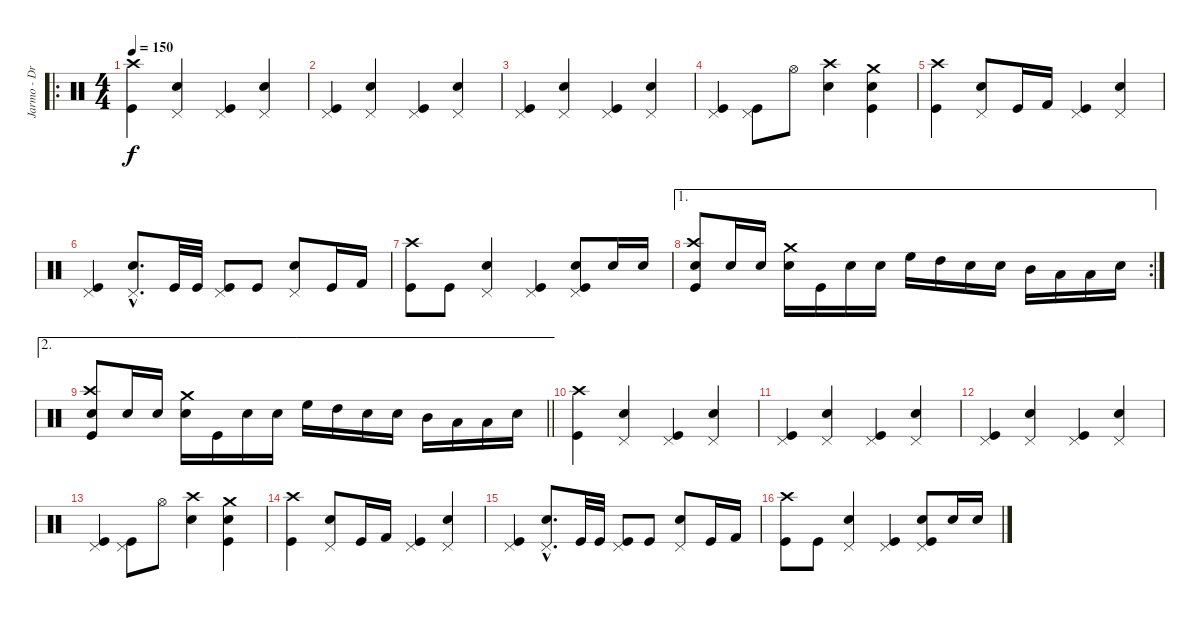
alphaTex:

\track ("Jarmo - Drums/Vodka" "Jarmo - Dr") {instrument percussion}
\staff {score}
\articulation defaults
\ro
\ts (4 4)
\tempo 150
\clef neutral
\ks c
("Kick (hit)" "Crash high (hit)").4{dy f} ("Electric Snare (hit)" "Pedal Hi-Hat (hit)").4 ("Kick (hit)" "Pedal Hi-Hat (hit)").4 ("Electric Snare (hit)" "Pedal Hi-Hat (hit)").4 |
("Kick (hit)" "Pedal Hi-Hat (hit)").4 ("Electric Snare (hit)" "Pedal Hi-Hat (hit)").4 ("Kick (hit)" "Pedal Hi-Hat (hit)").4 ("Electric Snare (hit)" "Pedal Hi-Hat (hit)").4 |
("Kick (hit)" "Pedal Hi-Hat (hit)").4 ("Electric Snare (hit)" "Pedal Hi-Hat (hit)").4 ("Kick (hit)" "Pedal Hi-Hat (hit)").4 ("Electric Snare (hit)" "Pedal Hi-Hat (hit)").4 |
("Kick (hit)" "Pedal Hi-Hat (hit)").4 ("Kick (hit)" "Pedal Hi-Hat (hit)").8 "Hi-Hat (open)".8 ("Electric Snare (hit)" "Crash high (hit)").4 ("Kick (hit)" "Electric Snare (hit)" "Crash medium (hit)").4 |
("Kick (hit)" "Crash high (hit)").4 ("Electric Snare (hit)" "Pedal Hi-Hat (hit)").8 "Kick (hit)".16 "Kick (hit) 2".16 ("Kick (hit)" "Pedal Hi-Hat (hit)").4 ("Electric Snare (hit)" "Pedal Hi-Hat (hit)").4 |
("Kick (hit)" "Pedal Hi-Hat (hit)").4 ("Electric Snare (hit)"{hac} "Pedal Hi-Hat (hit)"{hac}).8{d} "Kick (hit)".32 "Kick (hit)".32 ("Kick (hit)" "Pedal Hi-Hat (hit)").8 "Kick (hit)".8 ("Electric Snare (hit)" "Pedal Hi-Hat (hit)").8 "Kick (hit)".16 "Kick (hit) 2".16 |
("Kick (hit)" "Crash high (hit)").8 "Kick (hit)".8 ("Electric Snare (hit)" "Pedal Hi-Hat (hit)").4 ("Kick (hit)" "Pedal Hi-Hat (hit)").4 ("Kick (hit)" "Electric Snare (hit)" "Pedal Hi-Hat (hit)").8 "Electric Snare (hit)".16 "Electric Snare (hit)".16 |
\ae 1
\rc 2
("Kick (hit)" "Electric Snare (hit)" "Crash high (hit)").8 "Electric Snare (hit)".16 "Electric Snare (hit)".16 ("Electric Snare (hit)" "Crash medium (hit)").16 "Kick (hit)".16 "Electric Snare (hit)".16 "Electric Snare (hit)".16 "High Floor Tom (hit)".16 "High Tom (hit)".16 "Electric Snare (hit)".16 "Electric Snare (hit)".16 "Mid Tom (hit)".16 "Low Tom (hit)".16 "Low Tom (hit)".16 "Electric Snare (hit)".16 |
\ae 2
\barLineRight lightlight
("Kick (hit)" "Electric Snare (hit)" "Crash high (hit)").8 "Electric Snare (hit)".16 "Electric Snare (hit)".16 ("Electric Snare (hit)" "Crash medium (hit)").16 "Kick (hit)".16 "Electric Snare (hit)".16 "Electric Snare (hit)".16 "High Floor Tom (hit)".16 "High Tom (hit)".16 "Electric Snare (hit)".16 "Electric Snare (hit)".16 "Mid Tom (hit)".16 "Low Tom (hit)".16 "Low Tom (hit)".16 "Electric Snare (hit)".16 |
("Kick (hit)" "Crash high (hit)").4 ("Electric Snare (hit)" "Pedal Hi-Hat (hit)").4 ("Kick (hit)" "Pedal Hi-Hat (hit)").4 ("Electric Snare (hit)" "Pedal Hi-Hat (hit)").4 |
("Kick (hit)" "Pedal Hi-Hat (hit)").4 ("Electric Snare (hit)" "Pedal Hi-Hat (hit)").4 ("Kick (hit)" "Pedal Hi-Hat (hit)").4 ("Electric Snare (hit)" "Pedal Hi-Hat (hit)").4 |
("Kick (hit)" "Pedal Hi-Hat (hit)").4 ("Electric Snare (hit)" "Pedal Hi-Hat (hit)").4 ("Kick (hit)" "Pedal Hi-Hat (hit)").4 ("Electric Snare (hit)" "Pedal Hi-Hat (hit)").4 |
("Kick (hit)" "Pedal Hi-Hat (hit)").4 ("Kick (hit)" "Pedal Hi-Hat (hit)").8 "Hi-Hat (open)".8 ("Electric Snare (hit)" "Crash high (hit)").4 ("Kick (hit)" "Electric Snare (hit)" "Crash medium (hit)").4 |
("Kick (hit)" "Crash high (hit)").4 ("Electric Snare (hit)" "Pedal Hi-Hat (hit)").8 "Kick (hit)".16 "Kick (hit) 2".16 ("Kick (hit)" "Pedal Hi-Hat (hit)").4 ("Electric Snare (hit)" "Pedal Hi-Hat (hit)").4 |
("Kick (hit)" "Pedal Hi-Hat (hit)").4 ("Electric Snare (hit)"{hac} "Pedal Hi-Hat (hit)"{hac}).8{d} "Kick (hit)".32 "Kick (hit)".32 ("Kick (hit)" "Pedal Hi-Hat (hit)").8 "Kick (hit)".8 ("Electric Snare (hit)" "Pedal Hi-Hat (hit)").8 "Kick (hit)".16 "Kick (hit) 2".16 |
("Kick (hit)" "Crash high (hit)").8 "Kick (hit)".8 ("Electric Snare (hit)" "Pedal Hi-Hat (hit)").4 ("Kick (hit)" "Pedal Hi-Hat (hit)").4 ("Kick (hit)" "Electric Snare (hit)" "Pedal Hi-Hat (hit)").8 "Electric Snare (hit)".16 "Electric Snare (hit)".16
